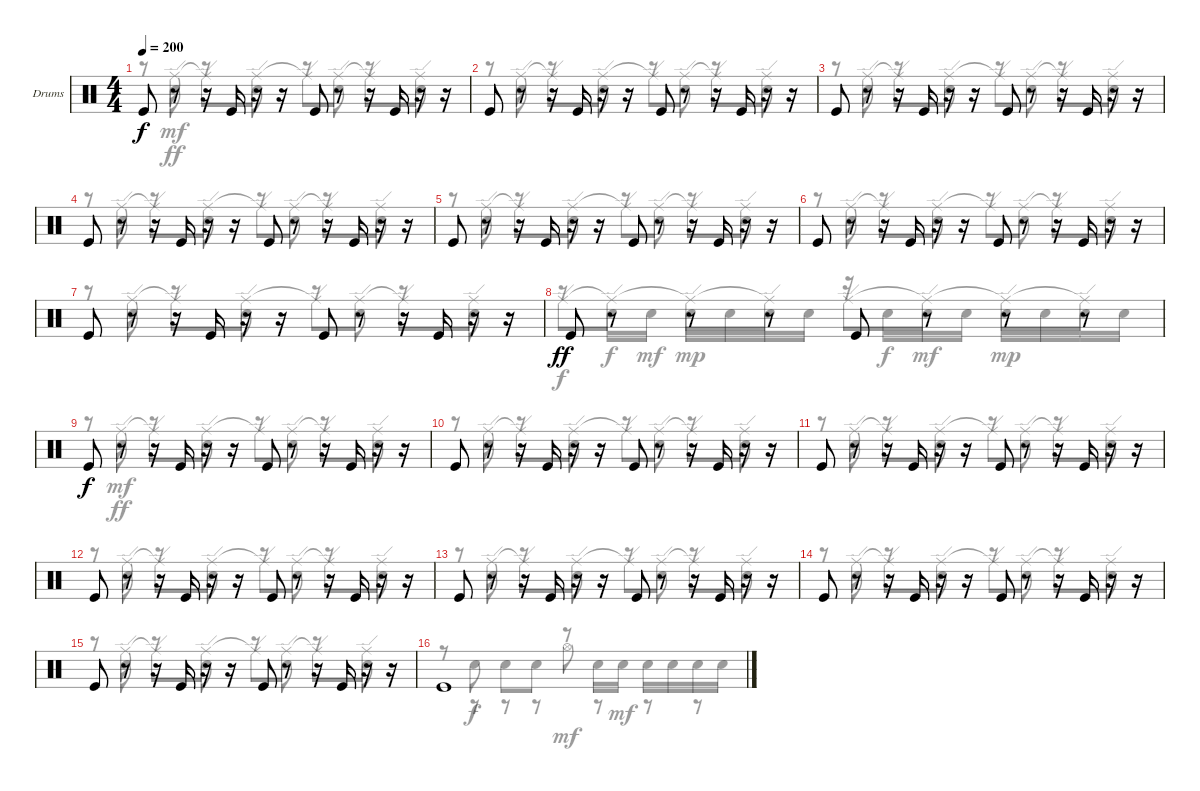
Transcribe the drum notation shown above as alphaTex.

\defaultSystemsLayout 4
\bracketExtendMode groupsimilarinstruments
\firstSystemTrackNameOrientation horizontal
\otherSystemsTrackNameOrientation horizontal
\track ("Drum" "Drums") {instrument percussion}
\staff {score}
\articulation defaults
\voice
\ts (4 4)
\tempo 200
\clef neutral
\ks c "Kick (hit)".8{dy f}
r.8 r.16 "Kick (hit)".16 r.16 r.16 "Kick (hit)".8 r.8 r.16 "Kick (hit)".16 r.16 r.16 |
"Kick (hit)".8 r.8 r.16 "Kick (hit)".16 r.16 r.16 "Kick (hit)".8 r.8 r.16 "Kick (hit)".16 r.16 r.16 |
"Kick (hit)".8 r.8 r.16 "Kick (hit)".16 r.16 r.16 "Kick (hit)".8 r.8 r.16 "Kick (hit)".16 r.16 r.16 |
"Kick (hit)".8 r.8 r.16 "Kick (hit)".16 r.16 r.16 "Kick (hit)".8 r.8 r.16 "Kick (hit)".16 r.16 r.16 |
"Kick (hit)".8 r.8 r.16 "Kick (hit)".16 r.16 r.16 "Kick (hit)".8 r.8 r.16 "Kick (hit)".16 r.16 r.16 |
"Kick (hit)".8 r.8 r.16 "Kick (hit)".16 r.16 r.16 "Kick (hit)".8 r.8 r.16 "Kick (hit)".16 r.16 r.16 |
"Kick (hit)".8 r.8 r.16 "Kick (hit)".16 r.16 r.16 "Kick (hit)".8 r.8 r.16 "Kick (hit)".16 r.16 r.16 |
"Kick (hit)".8{dy ff} r.8 r.8 r.8 "Kick (hit)".8 r.8 r.8 r.8 |
"Kick (hit)".8{dy f} r.8 r.16 "Kick (hit)".16 r.16 r.16 "Kick (hit)".8 r.8 r.16 "Kick (hit)".16 r.16 r.16 |
"Kick (hit)".8 r.8 r.16 "Kick (hit)".16 r.16 r.16 "Kick (hit)".8 r.8 r.16 "Kick (hit)".16 r.16 r.16 |
"Kick (hit)".8 r.8 r.16 "Kick (hit)".16 r.16 r.16 "Kick (hit)".8 r.8 r.16 "Kick (hit)".16 r.16 r.16 |
"Kick (hit)".8 r.8 r.16 "Kick (hit)".16 r.16 r.16 "Kick (hit)".8 r.8 r.16 "Kick (hit)".16 r.16 r.16 |
"Kick (hit)".8 r.8 r.16 "Kick (hit)".16 r.16 r.16 "Kick (hit)".8 r.8 r.16 "Kick (hit)".16 r.16 r.16 |
"Kick (hit)".8 r.8 r.16 "Kick (hit)".16 r.16 r.16 "Kick (hit)".8 r.8 r.16 "Kick (hit)".16 r.16 r.16 |
"Kick (hit)".8 r.8 r.16 "Kick (hit)".16 r.16 r.16 "Kick (hit)".8 r.8 r.16 "Kick (hit)".16 r.16 r.16 |
"Kick (hit)".1
\voice
\clef neutral
\ottava regular
\simile none
\ks c
r.8{dy mf} "Snare (hit) 2".8 r.8 "Snare (hit) 2".8 r.8 "Snare (hit) 2".8 r.8 "Snare (hit) 2".8 |
r.8 "Snare (hit) 2".8 r.8 "Snare (hit) 2".8 r.8 "Snare (hit) 2".8 r.8 "Snare (hit) 2".8 |
r.8 "Snare (hit) 2".8 r.8 "Snare (hit) 2".8 r.8 "Snare (hit) 2".8 r.8 "Snare (hit) 2".8 |
r.8 "Snare (hit) 2".8 r.8 "Snare (hit) 2".8 r.8 "Snare (hit) 2".8 r.8 "Snare (hit) 2".8 |
r.8 "Snare (hit) 2".8 r.8 "Snare (hit) 2".8 r.8 "Snare (hit) 2".8 r.8 "Snare (hit) 2".8 |
r.8 "Snare (hit) 2".8 r.8 "Snare (hit) 2".8 r.8 "Snare (hit) 2".8 r.8 "Snare (hit) 2".8 |
r.8 "Snare (hit) 2".8 r.8 "Snare (hit) 2".8 r.8 "Snare (hit) 2".8 r.8 "Snare (hit) 2".8 |
r.8 "Snare (hit) 2".16{dy f} "Snare (hit) 2".16{dy mf} "Snare (hit) 2".16{dy mp} "Snare (hit) 2".16 "Snare (hit) 2".16 "Snare (hit) 2".16 r.16 "Snare (hit) 2".16{dy f} "Snare (hit) 2".16{dy mf} "Snare (hit) 2".16 "Snare (hit) 2".16{dy mp} "Snare (hit) 2".16 "Snare (hit) 2".16 "Snare (hit) 2".16 |
r.8 "Snare (hit) 2".8{dy mf} r.8 "Snare (hit) 2".8 r.8 "Snare (hit) 2".8 r.8 "Snare (hit) 2".8 |
r.8 "Snare (hit) 2".8 r.8 "Snare (hit) 2".8 r.8 "Snare (hit) 2".8 r.8 "Snare (hit) 2".8 |
r.8 "Snare (hit) 2".8 r.8 "Snare (hit) 2".8 r.8 "Snare (hit) 2".8 r.8 "Snare (hit) 2".8 |
r.8 "Snare (hit) 2".8 r.8 "Snare (hit) 2".8 r.8 "Snare (hit) 2".8 r.8 "Snare (hit) 2".8 |
r.8 "Snare (hit) 2".8 r.8 "Snare (hit) 2".8 r.8 "Snare (hit) 2".8 r.8 "Snare (hit) 2".8 |
r.8 "Snare (hit) 2".8 r.8 "Snare (hit) 2".8 r.8 "Snare (hit) 2".8 r.8 "Snare (hit) 2".8 |
r.8 "Snare (hit) 2".8 r.8 "Snare (hit) 2".8 r.8 "Snare (hit) 2".8 r.8 "Snare (hit) 2".8 |
r.8 "Snare (hit) 2".8{dy f} "Snare (hit) 2".8 "Snare (hit) 2".8 r.8 "Snare (hit) 2".16 "Snare (hit) 2".16{dy mf} "Snare (hit) 2".16 "Snare (hit) 2".16 "Snare (hit) 2".16 "Snare (hit) 2".16
\voice
\clef neutral
\ottava regular
\simile none
\ks c
r.8{dy ff} "Ride (edge)".8 "Ride (edge)"{t}.8 "Ride (edge)".8 "Ride (edge)"{t}.8 "Ride (edge)".8 "Ride (edge)"{t}.8 "Ride (edge)".8 |
r.8 "Ride (edge)".8 "Ride (edge)"{t}.8 "Ride (edge)".8 "Ride (edge)"{t}.8 "Ride (edge)".8 "Ride (edge)"{t}.8 "Ride (edge)".8 |
r.8 "Ride (edge)".8 "Ride (edge)"{t}.8 "Ride (edge)".8 "Ride (edge)"{t}.8 "Ride (edge)".8 "Ride (edge)"{t}.8 "Ride (edge)".8 |
r.8 "Ride (edge)".8 "Ride (edge)"{t}.8 "Ride (edge)".8 "Ride (edge)"{t}.8 "Ride (edge)".8 "Ride (edge)"{t}.8 "Ride (edge)".8 |
r.8 "Ride (edge)".8 "Ride (edge)"{t}.8 "Ride (edge)".8 "Ride (edge)"{t}.8 "Ride (edge)".8 "Ride (edge)"{t}.8 "Ride (edge)".8 |
r.8 "Ride (edge)".8 "Ride (edge)"{t}.8 "Ride (edge)".8 "Ride (edge)"{t}.8 "Ride (edge)".8 "Ride (edge)"{t}.8 "Ride (edge)".8 |
r.8 "Ride (edge)".8 "Ride (edge)"{t}.8 "Ride (edge)".8 "Ride (edge)"{t}.8 "Ride (edge)".8 "Ride (edge)"{t}.8 "Ride (edge)".8 |
"Ride (edge)".8{dy f} "Ride (edge)"{t}.8 "Ride (edge)"{t}.8 "Ride (edge)"{t}.8 "Ride (edge)".8 "Ride (edge)"{t}.8 "Ride (edge)"{t}.8 "Ride (edge)"{t}.8 |
r.8 "Ride (edge)".8{dy ff} "Ride (edge)"{t}.8 "Ride (edge)".8 "Ride (edge)"{t}.8 "Ride (edge)".8 "Ride (edge)"{t}.8 "Ride (edge)".8 |
r.8 "Ride (edge)".8 "Ride (edge)"{t}.8 "Ride (edge)".8 "Ride (edge)"{t}.8 "Ride (edge)".8 "Ride (edge)"{t}.8 "Ride (edge)".8 |
r.8 "Ride (edge)".8 "Ride (edge)"{t}.8 "Ride (edge)".8 "Ride (edge)"{t}.8 "Ride (edge)".8 "Ride (edge)"{t}.8 "Ride (edge)".8 |
r.8 "Ride (edge)".8 "Ride (edge)"{t}.8 "Ride (edge)".8 "Ride (edge)"{t}.8 "Ride (edge)".8 "Ride (edge)"{t}.8 "Ride (edge)".8 |
r.8 "Ride (edge)".8 "Ride (edge)"{t}.8 "Ride (edge)".8 "Ride (edge)"{t}.8 "Ride (edge)".8 "Ride (edge)"{t}.8 "Ride (edge)".8 |
r.8 "Ride (edge)".8 "Ride (edge)"{t}.8 "Ride (edge)".8 "Ride (edge)"{t}.8 "Ride (edge)".8 "Ride (edge)"{t}.8 "Ride (edge)".8 |
r.8 "Ride (edge)".8 "Ride (edge)"{t}.8 "Ride (edge)".8 "Ride (edge)"{t}.8 "Ride (edge)".8 "Ride (edge)"{t}.8 "Ride (edge)".8 |
r.8 r.8 r.8 r.8 "Hi-Hat (open)".8{dy mf} r.8 r.8 r.8
